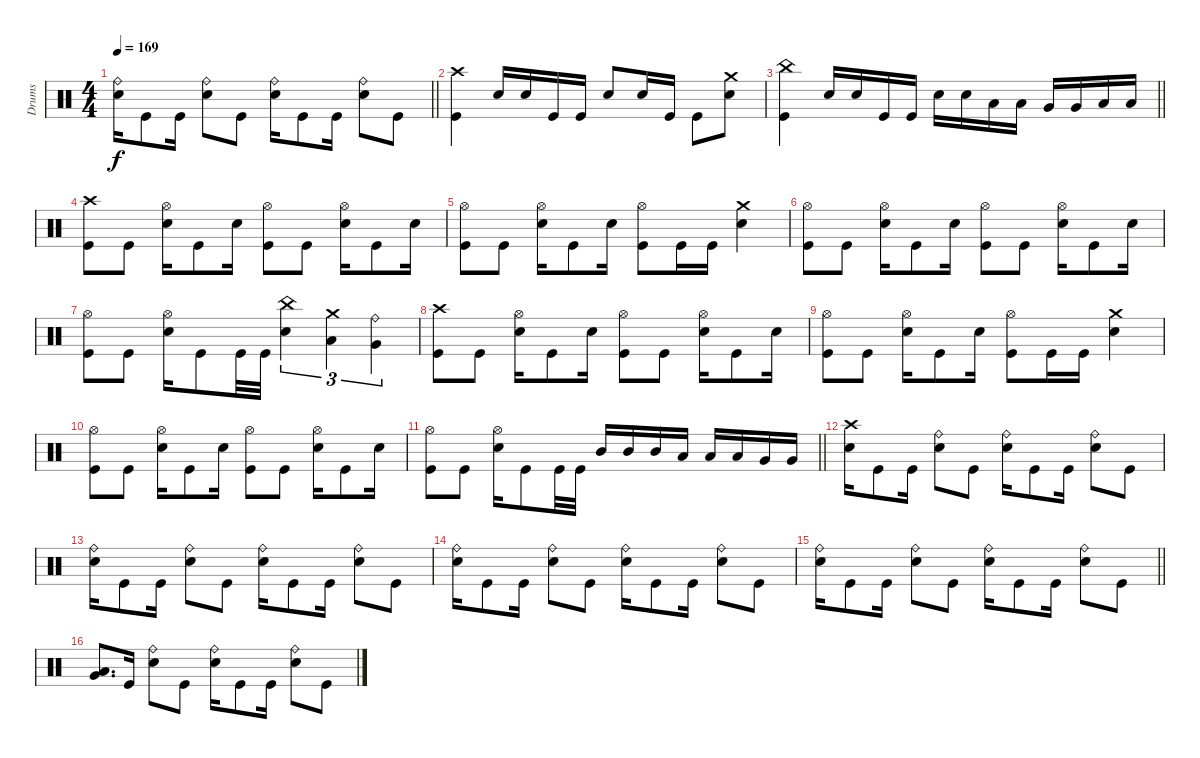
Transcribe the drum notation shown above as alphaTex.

\track ("Drums" "Drums") {instrument percussion}
\staff
\articulation defaults
\ts (4 4)
\tempo 169
\clef neutral
\barLineRight lightlight
\ks c
("Ride (bell)" "Electric Snare (hit)").16{dy f} "Kick (hit)".8 "Kick (hit)".16 ("Ride (bell)" "Electric Snare (hit)").8 "Kick (hit)".8 ("Ride (bell)" "Electric Snare (hit)").16 "Kick (hit)".8 "Kick (hit)".16 ("Ride (bell)" "Electric Snare (hit)").8 "Kick (hit)".8 |
("Crash high (hit)" "Kick (hit)").4 "Electric Snare (hit)".16 "Electric Snare (hit)".16 "Kick (hit)".16 "Kick (hit)".16 "Electric Snare (hit)".8 "Electric Snare (hit)".16 "Kick (hit)".16 "Kick (hit)".8 ("Crash medium (hit)" "Electric Snare (hit)").8 |
\barLineRight lightlight
("China (hit)" "Kick (hit)").4 "Electric Snare (hit)".16 "Electric Snare (hit)".16 "Kick (hit)".16 "Kick (hit)".16 "Electric Snare (hit)".16 "Electric Snare (hit)".16 "Low Tom (hit)".16 "Low Tom (hit)".16 "Very Low Tom (hit)".16 "Very Low Tom (hit)".16 "Low Floor Tom (hit)".16 "Low Floor Tom (hit)".16 |
\section ("" "")
("Crash high (hit)" "Kick (hit)").8 "Kick (hit)".8 ("Hi-Hat (open)" "Electric Snare (hit)").16 "Kick (hit)".8 "Electric Snare (hit)".16 ("Hi-Hat (open)" "Kick (hit)").8 "Kick (hit)".8 ("Hi-Hat (open)" "Electric Snare (hit)").16 "Kick (hit)".8 "Electric Snare (hit)".16 |
("Hi-Hat (open)" "Kick (hit)").8 "Kick (hit)".8 ("Hi-Hat (open)" "Electric Snare (hit)").16 "Kick (hit)".8 "Electric Snare (hit)".16 ("Hi-Hat (open)" "Kick (hit)").8 "Kick (hit)".16 "Kick (hit)".16 ("Crash medium (hit)" "Electric Snare (hit)").4 |
("Hi-Hat (open)" "Kick (hit)").8 "Kick (hit)".8 ("Hi-Hat (open)" "Electric Snare (hit)").16 "Kick (hit)".8 "Electric Snare (hit)".16 ("Hi-Hat (open)" "Kick (hit)").8 "Kick (hit)".8 ("Hi-Hat (open)" "Electric Snare (hit)").16 "Kick (hit)".8 "Electric Snare (hit)".16 |
("Hi-Hat (open)" "Kick (hit)").8 "Kick (hit)".8 ("Hi-Hat (open)" "Electric Snare (hit)").16 "Kick (hit)".8 "Kick (hit)".32 "Kick (hit)".32 ("China (hit)" "Electric Snare (hit)").4{tu (3 2)} ("Crash medium (hit)" "Low Tom (hit)").4{tu (3 2)} ("Ride (bell)" "Very Low Tom (hit)").4{tu (3 2)} |
("Crash high (hit)" "Kick (hit)").8 "Kick (hit)".8 ("Hi-Hat (open)" "Electric Snare (hit)").16 "Kick (hit)".8 "Electric Snare (hit)".16 ("Hi-Hat (open)" "Kick (hit)").8 "Kick (hit)".8 ("Hi-Hat (open)" "Electric Snare (hit)").16 "Kick (hit)".8 "Electric Snare (hit)".16 |
("Hi-Hat (open)" "Kick (hit)").8 "Kick (hit)".8 ("Hi-Hat (open)" "Electric Snare (hit)").16 "Kick (hit)".8 "Electric Snare (hit)".16 ("Hi-Hat (open)" "Kick (hit)").8 "Kick (hit)".16 "Kick (hit)".16 ("Crash medium (hit)" "Electric Snare (hit)").4 |
("Hi-Hat (open)" "Kick (hit)").8 "Kick (hit)".8 ("Hi-Hat (open)" "Electric Snare (hit)").16 "Kick (hit)".8 "Electric Snare (hit)".16 ("Hi-Hat (open)" "Kick (hit)").8 "Kick (hit)".8 ("Hi-Hat (open)" "Electric Snare (hit)").16 "Kick (hit)".8 "Electric Snare (hit)".16 |
\barLineRight lightlight
("Hi-Hat (open)" "Kick (hit)").8 "Kick (hit)".8 ("Hi-Hat (open)" "Electric Snare (hit)").16 "Kick (hit)".8 "Kick (hit)".32 "Kick (hit)".32 "Mid Tom (hit)".16 "Mid Tom (hit)".16 "Mid Tom (hit)".16 "Low Floor Tom (hit)".16 "Low Floor Tom (hit)".16 "Low Floor Tom (hit)".16 "Very Low Tom (hit)".16 "Very Low Tom (hit)".16 |
("Crash high (hit)" "Electric Snare (hit)").16 "Kick (hit)".8 "Kick (hit)".16 ("Ride (bell)" "Electric Snare (hit)").8 "Kick (hit)".8 ("Ride (bell)" "Electric Snare (hit)").16 "Kick (hit)".8 "Kick (hit)".16 ("Ride (bell)" "Electric Snare (hit)").8 "Kick (hit)".8 |
("Ride (bell)" "Electric Snare (hit)").16 "Kick (hit)".8 "Kick (hit)".16 ("Ride (bell)" "Electric Snare (hit)").8 "Kick (hit)".8 ("Ride (bell)" "Electric Snare (hit)").16 "Kick (hit)".8 "Kick (hit)".16 ("Ride (bell)" "Electric Snare (hit)").8 "Kick (hit)".8 |
("Ride (bell)" "Electric Snare (hit)").16 "Kick (hit)".8 "Kick (hit)".16 ("Ride (bell)" "Electric Snare (hit)").8 "Kick (hit)".8 ("Ride (bell)" "Electric Snare (hit)").16 "Kick (hit)".8 "Kick (hit)".16 ("Ride (bell)" "Electric Snare (hit)").8 "Kick (hit)".8 |
\barLineRight lightlight
("Ride (bell)" "Electric Snare (hit)").16 "Kick (hit)".8 "Kick (hit)".16 ("Ride (bell)" "Electric Snare (hit)").8 "Kick (hit)".8 ("Ride (bell)" "Electric Snare (hit)").16 "Kick (hit)".8 "Kick (hit)".16 ("Ride (bell)" "Electric Snare (hit)").8 "Kick (hit)".8 |
("Very Low Tom (hit)" "Low Floor Tom (hit)").8{d} "Kick (hit)".16 ("Ride (bell)" "Electric Snare (hit)").8 "Kick (hit)".8 ("Ride (bell)" "Electric Snare (hit)").16 "Kick (hit)".8 "Kick (hit)".16 ("Ride (bell)" "Electric Snare (hit)").8 "Kick (hit)".8
